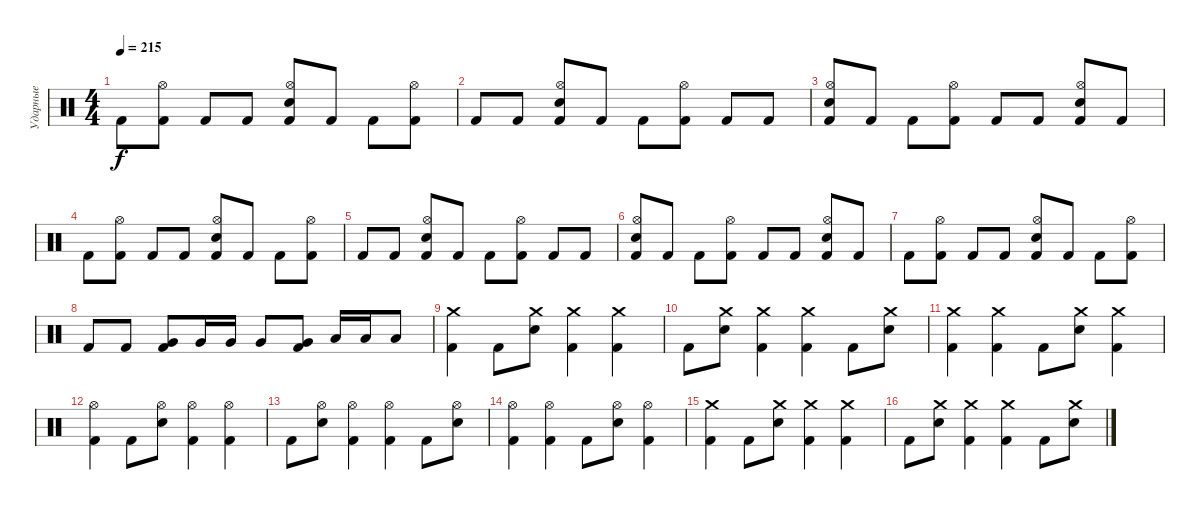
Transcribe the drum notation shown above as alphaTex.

\track ("Ударные" "Ударные") {instrument percussion}
\staff {score}
\articulation defaults
\ts (4 4)
\tempo 215
\clef neutral
\ks c "Kick (hit) 2".8{dy f}
("Hi-Hat (open)" "Kick (hit) 2").8 "Kick (hit) 2".8 "Kick (hit) 2".8 ("Hi-Hat (open)" "Snare (hit) 2" "Kick (hit) 2").8 "Kick (hit) 2".8 "Kick (hit) 2".8 ("Hi-Hat (open)" "Kick (hit) 2").8 |
"Kick (hit) 2".8 "Kick (hit) 2".8 ("Hi-Hat (open)" "Snare (hit) 2" "Kick (hit) 2").8 "Kick (hit) 2".8 "Kick (hit) 2".8 ("Hi-Hat (open)" "Kick (hit) 2").8 "Kick (hit) 2".8 "Kick (hit) 2".8 |
("Hi-Hat (open)" "Snare (hit) 2" "Kick (hit) 2").8 "Kick (hit) 2".8 "Kick (hit) 2".8 ("Hi-Hat (open)" "Kick (hit) 2").8 "Kick (hit) 2".8 "Kick (hit) 2".8 ("Hi-Hat (open)" "Snare (hit) 2" "Kick (hit) 2").8 "Kick (hit) 2".8 |
"Kick (hit) 2".8 ("Hi-Hat (open)" "Kick (hit) 2").8 "Kick (hit) 2".8 "Kick (hit) 2".8 ("Hi-Hat (open)" "Snare (hit) 2" "Kick (hit) 2").8 "Kick (hit) 2".8 "Kick (hit) 2".8 ("Hi-Hat (open)" "Kick (hit) 2").8 |
"Kick (hit) 2".8 "Kick (hit) 2".8 ("Hi-Hat (open)" "Snare (hit) 2" "Kick (hit) 2").8 "Kick (hit) 2".8 "Kick (hit) 2".8 ("Hi-Hat (open)" "Kick (hit) 2").8 "Kick (hit) 2".8 "Kick (hit) 2".8 |
("Hi-Hat (open)" "Snare (hit) 2" "Kick (hit) 2").8 "Kick (hit) 2".8 "Kick (hit) 2".8 ("Hi-Hat (open)" "Kick (hit) 2").8 "Kick (hit) 2".8 "Kick (hit) 2".8 ("Hi-Hat (open)" "Snare (hit) 2" "Kick (hit) 2").8 "Kick (hit) 2".8 |
"Kick (hit) 2".8 ("Hi-Hat (open)" "Kick (hit) 2").8 "Kick (hit) 2".8 "Kick (hit) 2".8 ("Hi-Hat (open)" "Snare (hit) 2" "Kick (hit) 2").8 "Kick (hit) 2".8 "Kick (hit) 2".8 ("Hi-Hat (open)" "Kick (hit) 2").8 |
"Kick (hit) 2".8 "Kick (hit) 2".8 ("Very Low Tom (hit)" "Kick (hit) 2").8 "Very Low Tom (hit)".16 "Very Low Tom (hit)".16 "Very Low Tom (hit)".8 ("Very Low Tom (hit)" "Kick (hit) 2").8 "Low Floor Tom (hit)".16 "Low Floor Tom (hit)".16 "Low Floor Tom (hit)".8 |
("Crash medium (hit)" "Kick (hit) 2").4 "Kick (hit) 2".8 ("Crash medium (hit)" "Snare (hit) 2").8 ("Crash medium (hit)" "Kick (hit) 2").4 ("Crash medium (hit)" "Kick (hit) 2").4 |
"Kick (hit) 2".8 ("Crash medium (hit)" "Snare (hit) 2").8 ("Crash medium (hit)" "Kick (hit) 2").4 ("Crash medium (hit)" "Kick (hit) 2").4 "Kick (hit) 2".8 ("Crash medium (hit)" "Snare (hit) 2").8 |
("Crash medium (hit)" "Kick (hit) 2").4 ("Crash medium (hit)" "Kick (hit) 2").4 "Kick (hit) 2".8 ("Crash medium (hit)" "Snare (hit) 2").8 ("Crash medium (hit)" "Kick (hit) 2").4 |
("Hi-Hat (open)" "Kick (hit) 2").4 "Kick (hit) 2".8 ("Hi-Hat (open)" "Snare (hit) 2").8 ("Hi-Hat (open)" "Kick (hit) 2").4 ("Hi-Hat (open)" "Kick (hit) 2").4 |
"Kick (hit) 2".8 ("Hi-Hat (open)" "Snare (hit) 2").8 ("Hi-Hat (open)" "Kick (hit) 2").4 ("Hi-Hat (open)" "Kick (hit) 2").4 "Kick (hit) 2".8 ("Hi-Hat (open)" "Snare (hit) 2").8 |
("Hi-Hat (open)" "Kick (hit) 2").4 ("Hi-Hat (open)" "Kick (hit) 2").4 "Kick (hit) 2".8 ("Hi-Hat (open)" "Snare (hit) 2").8 ("Hi-Hat (open)" "Kick (hit) 2").4 |
("Crash medium (hit)" "Kick (hit) 2").4 "Kick (hit) 2".8 ("Crash medium (hit)" "Snare (hit) 2").8 ("Crash medium (hit)" "Kick (hit) 2").4 ("Crash medium (hit)" "Kick (hit) 2").4 |
"Kick (hit) 2".8 ("Crash medium (hit)" "Snare (hit) 2").8 ("Crash medium (hit)" "Kick (hit) 2").4 ("Crash medium (hit)" "Kick (hit) 2").4 "Kick (hit) 2".8 ("Crash medium (hit)" "Snare (hit) 2").8
